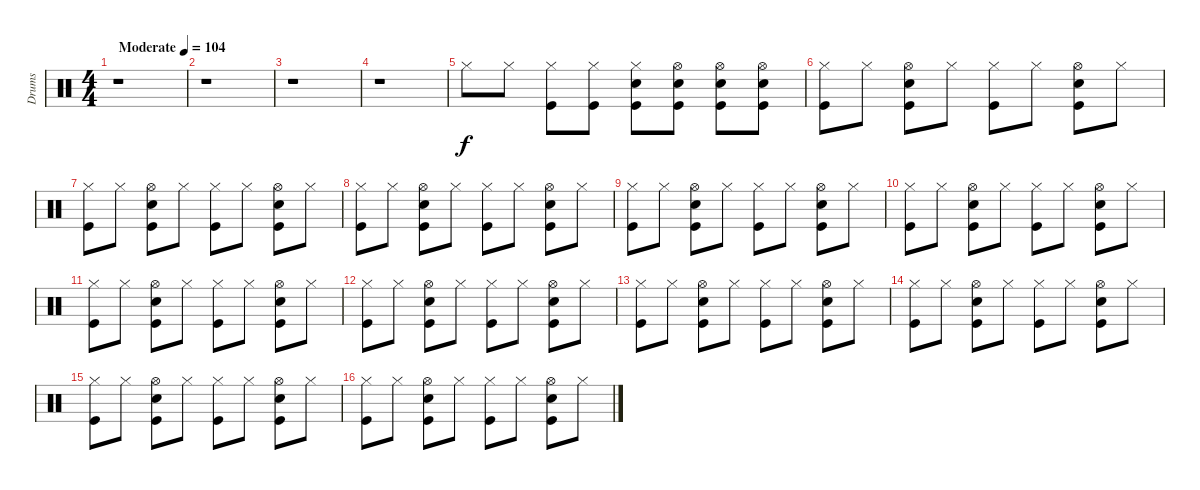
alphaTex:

\track ("Drums" "Drums") {instrument percussion}
\staff {score}
\articulation defaults
\ts (4 4)
\tempo (104 "Moderate")
\clef neutral
\ks c
r.1{dy f} |
r.1 |
r.1 |
r.1 |
"Hi-Hat (closed)".8 "Hi-Hat (closed)".8 ("Hi-Hat (closed)" "Kick (hit)").8 ("Hi-Hat (closed)" "Kick (hit)").8 ("Snare (hit) 2" "Hi-Hat (closed)" "Kick (hit)").8 ("Snare (hit) 2" "Hi-Hat (open)" "Kick (hit)").8 ("Snare (hit) 2" "Hi-Hat (open)" "Kick (hit)").8 ("Snare (hit) 2" "Hi-Hat (open)" "Kick (hit)").8 |
("Hi-Hat (closed)" "Kick (hit)").8 "Hi-Hat (closed)".8 ("Snare (hit) 2" "Hi-Hat (open)" "Kick (hit)").8 "Hi-Hat (closed)".8 ("Hi-Hat (closed)" "Kick (hit)").8 "Hi-Hat (closed)".8 ("Snare (hit) 2" "Hi-Hat (open)" "Kick (hit)").8 "Hi-Hat (closed)".8 |
("Hi-Hat (closed)" "Kick (hit)").8 "Hi-Hat (closed)".8 ("Snare (hit) 2" "Hi-Hat (open)" "Kick (hit)").8 "Hi-Hat (closed)".8 ("Hi-Hat (closed)" "Kick (hit)").8 "Hi-Hat (closed)".8 ("Snare (hit) 2" "Hi-Hat (open)" "Kick (hit)").8 "Hi-Hat (closed)".8 |
("Hi-Hat (closed)" "Kick (hit)").8 "Hi-Hat (closed)".8 ("Snare (hit) 2" "Hi-Hat (open)" "Kick (hit)").8 "Hi-Hat (closed)".8 ("Hi-Hat (closed)" "Kick (hit)").8 "Hi-Hat (closed)".8 ("Snare (hit) 2" "Hi-Hat (open)" "Kick (hit)").8 "Hi-Hat (closed)".8 |
("Hi-Hat (closed)" "Kick (hit)").8 "Hi-Hat (closed)".8 ("Snare (hit) 2" "Hi-Hat (open)" "Kick (hit)").8 "Hi-Hat (closed)".8 ("Hi-Hat (closed)" "Kick (hit)").8 "Hi-Hat (closed)".8 ("Snare (hit) 2" "Hi-Hat (open)" "Kick (hit)").8 "Hi-Hat (closed)".8 |
("Hi-Hat (closed)" "Kick (hit)").8 "Hi-Hat (closed)".8 ("Snare (hit) 2" "Hi-Hat (open)" "Kick (hit)").8 "Hi-Hat (closed)".8 ("Hi-Hat (closed)" "Kick (hit)").8 "Hi-Hat (closed)".8 ("Snare (hit) 2" "Hi-Hat (open)" "Kick (hit)").8 "Hi-Hat (closed)".8 |
("Hi-Hat (closed)" "Kick (hit)").8 "Hi-Hat (closed)".8 ("Snare (hit) 2" "Hi-Hat (open)" "Kick (hit)").8 "Hi-Hat (closed)".8 ("Hi-Hat (closed)" "Kick (hit)").8 "Hi-Hat (closed)".8 ("Snare (hit) 2" "Hi-Hat (open)" "Kick (hit)").8 "Hi-Hat (closed)".8 |
("Hi-Hat (closed)" "Kick (hit)").8 "Hi-Hat (closed)".8 ("Snare (hit) 2" "Hi-Hat (open)" "Kick (hit)").8 "Hi-Hat (closed)".8 ("Hi-Hat (closed)" "Kick (hit)").8 "Hi-Hat (closed)".8 ("Snare (hit) 2" "Hi-Hat (open)" "Kick (hit)").8 "Hi-Hat (closed)".8 |
("Hi-Hat (closed)" "Kick (hit)").8 "Hi-Hat (closed)".8 ("Snare (hit) 2" "Hi-Hat (open)" "Kick (hit)").8 "Hi-Hat (closed)".8 ("Hi-Hat (closed)" "Kick (hit)").8 "Hi-Hat (closed)".8 ("Snare (hit) 2" "Hi-Hat (open)" "Kick (hit)").8 "Hi-Hat (closed)".8 |
("Hi-Hat (closed)" "Kick (hit)").8 "Hi-Hat (closed)".8 ("Snare (hit) 2" "Hi-Hat (open)" "Kick (hit)").8 "Hi-Hat (closed)".8 ("Hi-Hat (closed)" "Kick (hit)").8 "Hi-Hat (closed)".8 ("Snare (hit) 2" "Hi-Hat (open)" "Kick (hit)").8 "Hi-Hat (closed)".8 |
("Hi-Hat (closed)" "Kick (hit)").8 "Hi-Hat (closed)".8 ("Snare (hit) 2" "Hi-Hat (open)" "Kick (hit)").8 "Hi-Hat (closed)".8 ("Hi-Hat (closed)" "Kick (hit)").8 "Hi-Hat (closed)".8 ("Snare (hit) 2" "Hi-Hat (open)" "Kick (hit)").8 "Hi-Hat (closed)".8 |
("Hi-Hat (closed)" "Kick (hit)").8 "Hi-Hat (closed)".8 ("Snare (hit) 2" "Hi-Hat (open)" "Kick (hit)").8 "Hi-Hat (closed)".8 ("Hi-Hat (closed)" "Kick (hit)").8 "Hi-Hat (closed)".8 ("Snare (hit) 2" "Hi-Hat (open)" "Kick (hit)").8 "Hi-Hat (closed)".8
